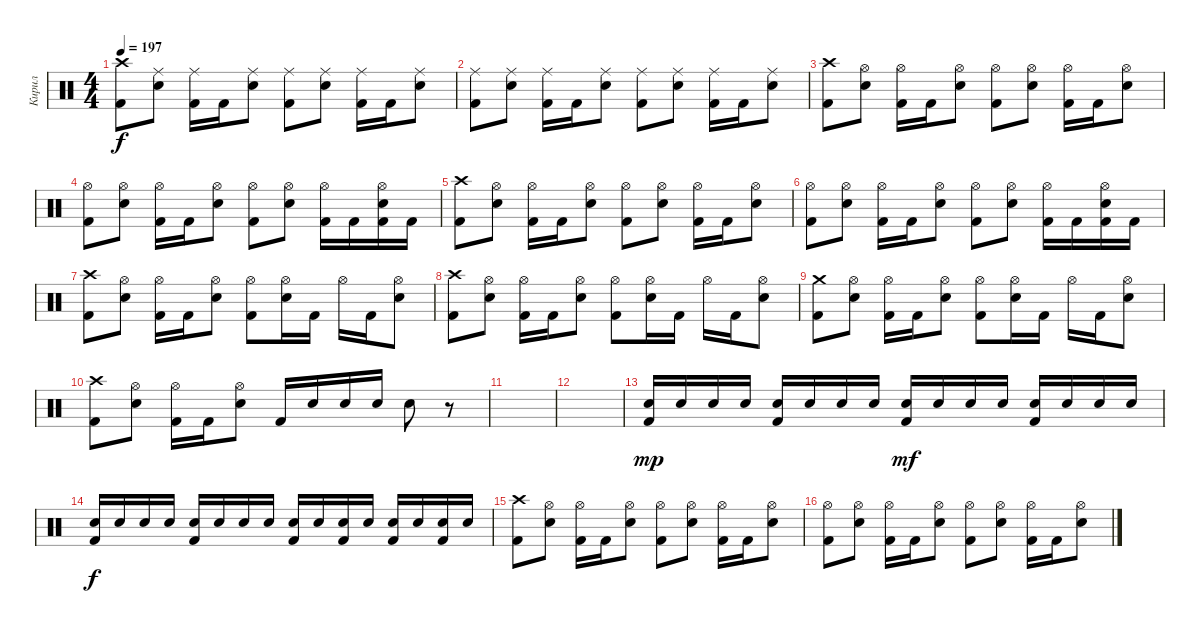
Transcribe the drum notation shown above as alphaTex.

\track ("Кирил" "Кирил") {instrument percussion}
\staff {score}
\articulation defaults
\ts (4 4)
\tempo 197
\clef neutral
\ks c
("Crash high (hit)" "Kick (hit) 2").8{dy f} ("Ride (middle)" "Electric Snare (hit)").8 ("Ride (middle)" "Kick (hit) 2").16 "Kick (hit) 2".16 ("Ride (middle)" "Electric Snare (hit)").8 ("Ride (middle)" "Kick (hit) 2").8 ("Ride (middle)" "Electric Snare (hit)").8 ("Ride (middle)" "Kick (hit) 2").16 "Kick (hit) 2".16 ("Ride (middle)" "Electric Snare (hit)").8 |
("Ride (middle)" "Kick (hit) 2").8 ("Ride (middle)" "Electric Snare (hit)").8 ("Ride (middle)" "Kick (hit) 2").16 "Kick (hit) 2".16 ("Ride (middle)" "Electric Snare (hit)").8 ("Ride (middle)" "Kick (hit) 2").8 ("Ride (middle)" "Electric Snare (hit)").8 ("Ride (middle)" "Kick (hit) 2").16 "Kick (hit) 2".16 ("Ride (middle)" "Electric Snare (hit)").8 |
("Crash high (hit)" "Kick (hit) 2").8 ("Hi-Hat (open)" "Electric Snare (hit)").8 ("Hi-Hat (open)" "Kick (hit) 2").16 "Kick (hit) 2".16 ("Hi-Hat (open)" "Electric Snare (hit)").8 ("Hi-Hat (open)" "Kick (hit) 2").8 ("Hi-Hat (open)" "Electric Snare (hit)").8 ("Hi-Hat (open)" "Kick (hit) 2").16 "Kick (hit) 2".16 ("Hi-Hat (open)" "Electric Snare (hit)").8 |
("Hi-Hat (open)" "Kick (hit) 2").8 ("Hi-Hat (open)" "Electric Snare (hit)").8 ("Hi-Hat (open)" "Kick (hit) 2").16 "Kick (hit) 2".16 ("Hi-Hat (open)" "Electric Snare (hit)").8 ("Hi-Hat (open)" "Kick (hit) 2").8 ("Hi-Hat (open)" "Electric Snare (hit)").8 ("Hi-Hat (open)" "Kick (hit) 2").16 "Kick (hit) 2".16 ("Hi-Hat (open)" "Electric Snare (hit)" "Kick (hit) 2").16 "Kick (hit) 2".16 |
("Crash high (hit)" "Kick (hit) 2").8 ("Hi-Hat (open)" "Electric Snare (hit)").8 ("Hi-Hat (open)" "Kick (hit) 2").16 "Kick (hit) 2".16 ("Hi-Hat (open)" "Electric Snare (hit)").8 ("Hi-Hat (open)" "Kick (hit) 2").8 ("Hi-Hat (open)" "Electric Snare (hit)").8 ("Hi-Hat (open)" "Kick (hit) 2").16 "Kick (hit) 2".16 ("Hi-Hat (open)" "Electric Snare (hit)").8 |
("Hi-Hat (open)" "Kick (hit) 2").8 ("Hi-Hat (open)" "Electric Snare (hit)").8 ("Hi-Hat (open)" "Kick (hit) 2").16 "Kick (hit) 2".16 ("Hi-Hat (open)" "Electric Snare (hit)").8 ("Hi-Hat (open)" "Kick (hit) 2").8 ("Hi-Hat (open)" "Electric Snare (hit)").8 ("Hi-Hat (open)" "Kick (hit) 2").16 "Kick (hit) 2".16 ("Hi-Hat (open)" "Electric Snare (hit)" "Kick (hit) 2").16 "Kick (hit) 2".16 |
("Crash high (hit)" "Kick (hit) 2").8 ("Hi-Hat (open)" "Electric Snare (hit)").8 ("Hi-Hat (open)" "Kick (hit) 2").16 "Kick (hit) 2".16 ("Hi-Hat (open)" "Electric Snare (hit)").8 ("Hi-Hat (open)" "Kick (hit) 2").8 ("Hi-Hat (open)" "Electric Snare (hit)").16 "Kick (hit) 2".16 "Hi-Hat (open)".16 "Kick (hit) 2".16 ("Hi-Hat (open)" "Electric Snare (hit)").8 |
("Crash high (hit)" "Kick (hit) 2").8 ("Hi-Hat (open)" "Electric Snare (hit)").8 ("Hi-Hat (open)" "Kick (hit) 2").16 "Kick (hit) 2".16 ("Hi-Hat (open)" "Electric Snare (hit)").8 ("Hi-Hat (open)" "Kick (hit) 2").8 ("Hi-Hat (open)" "Electric Snare (hit)").16 "Kick (hit) 2".16 "Hi-Hat (open)".16 "Kick (hit) 2".16 ("Hi-Hat (open)" "Electric Snare (hit)").8 |
("Crash medium (hit)" "Kick (hit) 2").8 ("Hi-Hat (open)" "Electric Snare (hit)").8 ("Hi-Hat (open)" "Kick (hit) 2").16 "Kick (hit) 2".16 ("Hi-Hat (open)" "Electric Snare (hit)").8 ("Hi-Hat (open)" "Kick (hit) 2").8 ("Hi-Hat (open)" "Electric Snare (hit)").16 "Kick (hit) 2".16 "Hi-Hat (open)".16 "Kick (hit) 2".16 ("Hi-Hat (open)" "Electric Snare (hit)").8 |
("Crash high (hit)" "Kick (hit) 2").8 ("Hi-Hat (open)" "Electric Snare (hit)").8 ("Hi-Hat (open)" "Kick (hit) 2").16 "Kick (hit) 2".16 ("Hi-Hat (open)" "Electric Snare (hit)").8 "Kick (hit) 2".16 "Electric Snare (hit)".16 "Electric Snare (hit)".16 "Electric Snare (hit)".16 "Electric Snare (hit)".8 r.8 |
|
|
("Kick (hit) 2" "Electric Snare (hit)").16{dy mp} "Electric Snare (hit)".16 "Electric Snare (hit)".16 "Electric Snare (hit)".16 ("Kick (hit) 2" "Electric Snare (hit)").16 "Electric Snare (hit)".16 "Electric Snare (hit)".16 "Electric Snare (hit)".16 ("Kick (hit) 2" "Electric Snare (hit)").16{dy mf} "Electric Snare (hit)".16 "Electric Snare (hit)".16 "Electric Snare (hit)".16 ("Kick (hit) 2" "Electric Snare (hit)").16 "Electric Snare (hit)".16 "Electric Snare (hit)".16 "Electric Snare (hit)".16 |
("Kick (hit) 2" "Electric Snare (hit)").16{dy f} "Electric Snare (hit)".16 "Electric Snare (hit)".16 "Electric Snare (hit)".16 ("Kick (hit) 2" "Electric Snare (hit)").16 "Electric Snare (hit)".16 "Electric Snare (hit)".16 "Electric Snare (hit)".16 ("Kick (hit) 2" "Electric Snare (hit)").16 "Electric Snare (hit)".16 ("Kick (hit) 2" "Electric Snare (hit)").16 "Electric Snare (hit)".16 ("Kick (hit) 2" "Electric Snare (hit)").16 "Electric Snare (hit)".16 ("Kick (hit) 2" "Electric Snare (hit)").16 "Electric Snare (hit)".16 |
("Crash high (hit)" "Kick (hit) 2").8 ("Hi-Hat (open)" "Electric Snare (hit)").8 ("Hi-Hat (open)" "Kick (hit) 2").16 "Kick (hit) 2".16 ("Hi-Hat (open)" "Electric Snare (hit)").8 ("Hi-Hat (open)" "Kick (hit) 2").8 ("Hi-Hat (open)" "Electric Snare (hit)").8 ("Hi-Hat (open)" "Kick (hit) 2").16 "Kick (hit) 2".16 ("Hi-Hat (open)" "Electric Snare (hit)").8 |
("Hi-Hat (open)" "Kick (hit) 2").8 ("Hi-Hat (open)" "Electric Snare (hit)").8 ("Hi-Hat (open)" "Kick (hit) 2").16 "Kick (hit) 2".16 ("Hi-Hat (open)" "Electric Snare (hit)").8 ("Hi-Hat (open)" "Kick (hit) 2").8 ("Hi-Hat (open)" "Electric Snare (hit)").8 ("Hi-Hat (open)" "Kick (hit) 2").16 "Kick (hit) 2".16 ("Hi-Hat (open)" "Electric Snare (hit)").8
